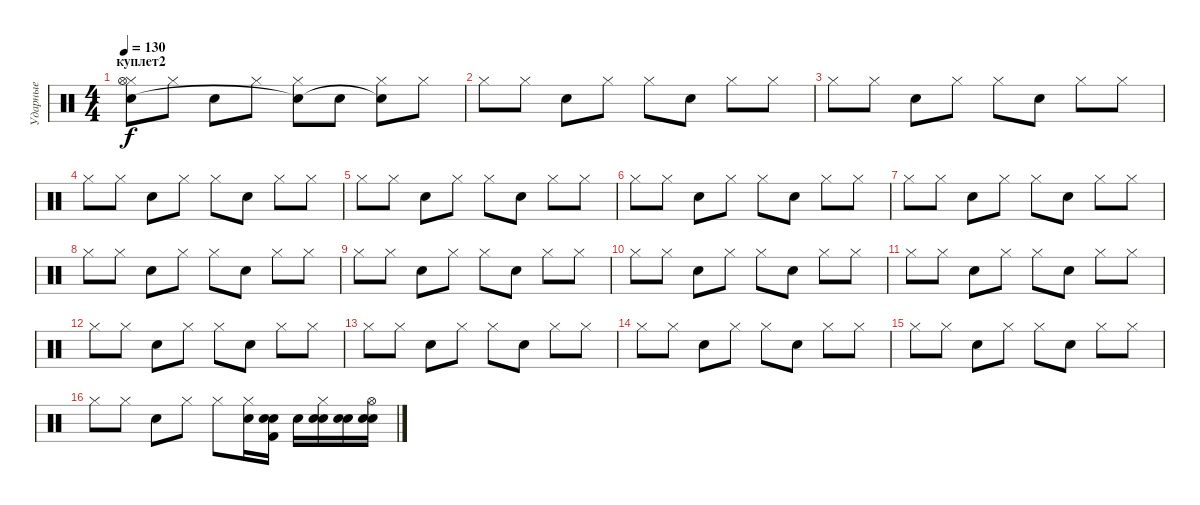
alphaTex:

\track ("Ударные" "Ударные") {instrument percussion}
\staff {score}
\articulation defaults
\ts (4 4)
\section ("" "куплет2")
\tempo 130
\clef neutral
\ks c
("Hi-Hat (closed)" "Electric Snare (hit)" "Hi-Hat (open)").8{dy f} "Hi-Hat (closed)".8 "Electric Snare (hit)".8 "Hi-Hat (closed)".8 ("Hi-Hat (closed)" "Snare (hit)"{t}).8 "Snare (hit) 2".8 ("Hi-Hat (closed)" "Snare (hit)"{t}).8 "Hi-Hat (closed)".8 |
"Hi-Hat (closed)".8 "Hi-Hat (closed)".8 "Electric Snare (hit)".8 "Hi-Hat (closed)".8 "Hi-Hat (closed)".8 "Snare (hit) 2".8 "Hi-Hat (closed)".8 "Hi-Hat (closed)".8 |
"Hi-Hat (closed)".8 "Hi-Hat (closed)".8 "Electric Snare (hit)".8 "Hi-Hat (closed)".8 "Hi-Hat (closed)".8 "Snare (hit) 2".8 "Hi-Hat (closed)".8 "Hi-Hat (closed)".8 |
"Hi-Hat (closed)".8 "Hi-Hat (closed)".8 "Electric Snare (hit)".8 "Hi-Hat (closed)".8 "Hi-Hat (closed)".8 "Snare (hit) 2".8 "Hi-Hat (closed)".8 "Hi-Hat (closed)".8 |
"Hi-Hat (closed)".8 "Hi-Hat (closed)".8 "Electric Snare (hit)".8 "Hi-Hat (closed)".8 "Hi-Hat (closed)".8 "Snare (hit) 2".8 "Hi-Hat (closed)".8 "Hi-Hat (closed)".8 |
"Hi-Hat (closed)".8 "Hi-Hat (closed)".8 "Electric Snare (hit)".8 "Hi-Hat (closed)".8 "Hi-Hat (closed)".8 "Snare (hit) 2".8 "Hi-Hat (closed)".8 "Hi-Hat (closed)".8 |
"Hi-Hat (closed)".8 "Hi-Hat (closed)".8 "Electric Snare (hit)".8 "Hi-Hat (closed)".8 "Hi-Hat (closed)".8 "Snare (hit) 2".8 "Hi-Hat (closed)".8 "Hi-Hat (closed)".8 |
"Hi-Hat (closed)".8 "Hi-Hat (closed)".8 "Electric Snare (hit)".8 "Hi-Hat (closed)".8 "Hi-Hat (closed)".8 "Snare (hit) 2".8 "Hi-Hat (closed)".8 "Hi-Hat (closed)".8 |
"Hi-Hat (closed)".8 "Hi-Hat (closed)".8 "Electric Snare (hit)".8 "Hi-Hat (closed)".8 "Hi-Hat (closed)".8 "Snare (hit) 2".8 "Hi-Hat (closed)".8 "Hi-Hat (closed)".8 |
"Hi-Hat (closed)".8 "Hi-Hat (closed)".8 "Electric Snare (hit)".8 "Hi-Hat (closed)".8 "Hi-Hat (closed)".8 "Snare (hit) 2".8 "Hi-Hat (closed)".8 "Hi-Hat (closed)".8 |
"Hi-Hat (closed)".8 "Hi-Hat (closed)".8 "Electric Snare (hit)".8 "Hi-Hat (closed)".8 "Hi-Hat (closed)".8 "Snare (hit) 2".8 "Hi-Hat (closed)".8 "Hi-Hat (closed)".8 |
"Hi-Hat (closed)".8 "Hi-Hat (closed)".8 "Electric Snare (hit)".8 "Hi-Hat (closed)".8 "Hi-Hat (closed)".8 "Snare (hit) 2".8 "Hi-Hat (closed)".8 "Hi-Hat (closed)".8 |
"Hi-Hat (closed)".8 "Hi-Hat (closed)".8 "Electric Snare (hit)".8 "Hi-Hat (closed)".8 "Hi-Hat (closed)".8 "Snare (hit) 2".8 "Hi-Hat (closed)".8 "Hi-Hat (closed)".8 |
"Hi-Hat (closed)".8 "Hi-Hat (closed)".8 "Electric Snare (hit)".8 "Hi-Hat (closed)".8 "Hi-Hat (closed)".8 "Snare (hit) 2".8 "Hi-Hat (closed)".8 "Hi-Hat (closed)".8 |
"Hi-Hat (closed)".8 "Hi-Hat (closed)".8 "Electric Snare (hit)".8 "Hi-Hat (closed)".8 "Hi-Hat (closed)".8 "Snare (hit) 2".8 "Hi-Hat (closed)".8 "Hi-Hat (closed)".8 |
"Hi-Hat (closed)".8 "Hi-Hat (closed)".8 "Electric Snare (hit)".8 "Hi-Hat (closed)".8 "Hi-Hat (closed)".8 ("Snare (hit) 2" "Hi-Hat (closed)").16 ("Snare (hit) 2" "Kick (hit) 2" "Electric Snare (hit)").16 "Snare (hit) 2".16 ("Snare (hit) 2" "Hi-Hat (closed)" "Electric Snare (hit)").16 ("Snare (hit) 2" "Electric Snare (hit)").16 ("Snare (hit) 2" "Electric Snare (hit)" "Hi-Hat (open)").16
